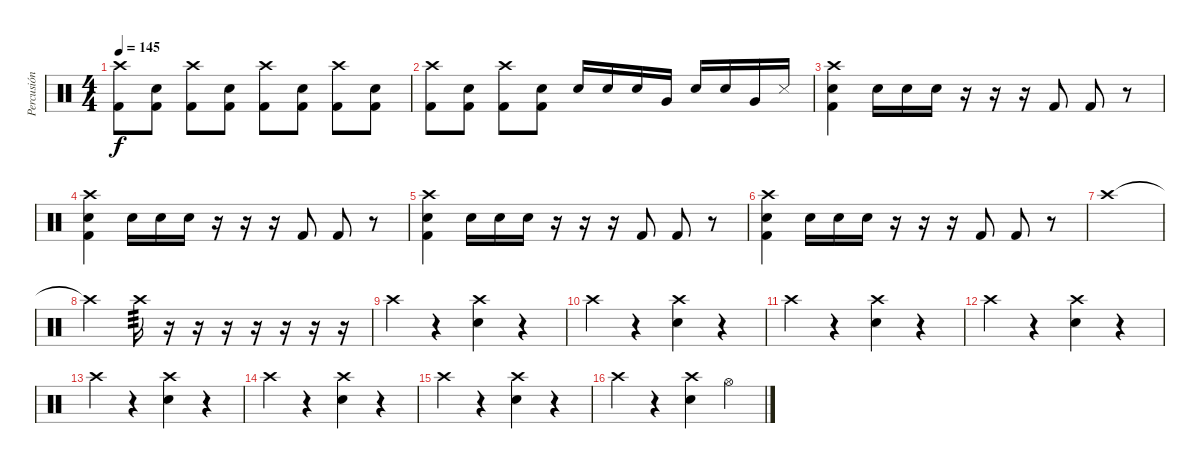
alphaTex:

\track ("Percusión" "Percusión") {instrument percussion}
\staff {score}
\articulation defaults
\ts (4 4)
\tempo 145
\clef neutral
\ks c
("Crash high (hit)" "Kick (hit) 2").8{dy f} ("Electric Snare (hit)" "Kick (hit) 2").8 ("Crash high (hit)" "Kick (hit) 2").8 ("Electric Snare (hit)" "Kick (hit) 2").8 ("Crash high (hit)" "Kick (hit) 2").8 ("Electric Snare (hit)" "Kick (hit) 2").8 ("Crash high (hit)" "Kick (hit) 2").8 ("Electric Snare (hit)" "Kick (hit) 2").8 |
("Crash high (hit)" "Kick (hit) 2").8 ("Electric Snare (hit)" "Kick (hit) 2").8 ("Crash high (hit)" "Kick (hit) 2").8 ("Electric Snare (hit)" "Kick (hit) 2").8 "Electric Snare (hit)".16 "Snare (hit) 2".16 "Electric Snare (hit)".16 "Very Low Tom (hit)".16 "Electric Snare (hit)".16 "Electric Snare (hit)".16 "Very Low Tom (hit)".16 "Snare (side stick) 3".16 |
("Crash high (hit)" "Electric Snare (hit)" "Kick (hit) 2").4 "Electric Snare (hit)".16 "Electric Snare (hit)".16 "Electric Snare (hit)".16 r.16 r.16 r.16 "Kick (hit) 2".8 "Kick (hit) 2".8 r.8 |
("Crash high (hit)" "Electric Snare (hit)" "Kick (hit) 2").4 "Electric Snare (hit)".16 "Electric Snare (hit)".16 "Electric Snare (hit)".16 r.16 r.16 r.16 "Kick (hit) 2".8 "Kick (hit) 2".8 r.8 |
("Crash high (hit)" "Electric Snare (hit)" "Kick (hit) 2").4 "Electric Snare (hit)".16 "Electric Snare (hit)".16 "Electric Snare (hit)".16 r.16 r.16 r.16 "Kick (hit) 2".8 "Kick (hit) 2".8 r.8 |
("Crash high (hit)" "Electric Snare (hit)" "Kick (hit) 2").4 "Electric Snare (hit)".16 "Electric Snare (hit)".16 "Electric Snare (hit)".16 r.16 r.16 r.16 "Kick (hit) 2".8 "Kick (hit) 2".8 r.8 |
"Crash high (hit)".1 |
"Crash high (hit)"{t}.2 "Crash high (hit)".16{tp 3} r.16 r.16 r.16 r.16 r.16 r.16 r.16 |
"Crash high (hit)".4 r.4 ("Crash high (hit)" "Electric Snare (hit)").4 r.4 |
"Crash high (hit)".4 r.4 ("Crash high (hit)" "Electric Snare (hit)").4 r.4 |
"Crash high (hit)".4 r.4 ("Crash high (hit)" "Electric Snare (hit)").4 r.4 |
"Crash high (hit)".4 r.4 ("Crash high (hit)" "Electric Snare (hit)").4 r.4 |
"Crash high (hit)".4 r.4 ("Crash high (hit)" "Electric Snare (hit)").4 r.4 |
"Crash high (hit)".4 r.4 ("Crash high (hit)" "Electric Snare (hit)").4 r.4 |
"Crash high (hit)".4 r.4 ("Crash high (hit)" "Electric Snare (hit)").4 r.4 |
"Crash high (hit)".4 r.4 ("Crash high (hit)" "Electric Snare (hit)").4 "Hi-Hat (open)".4
